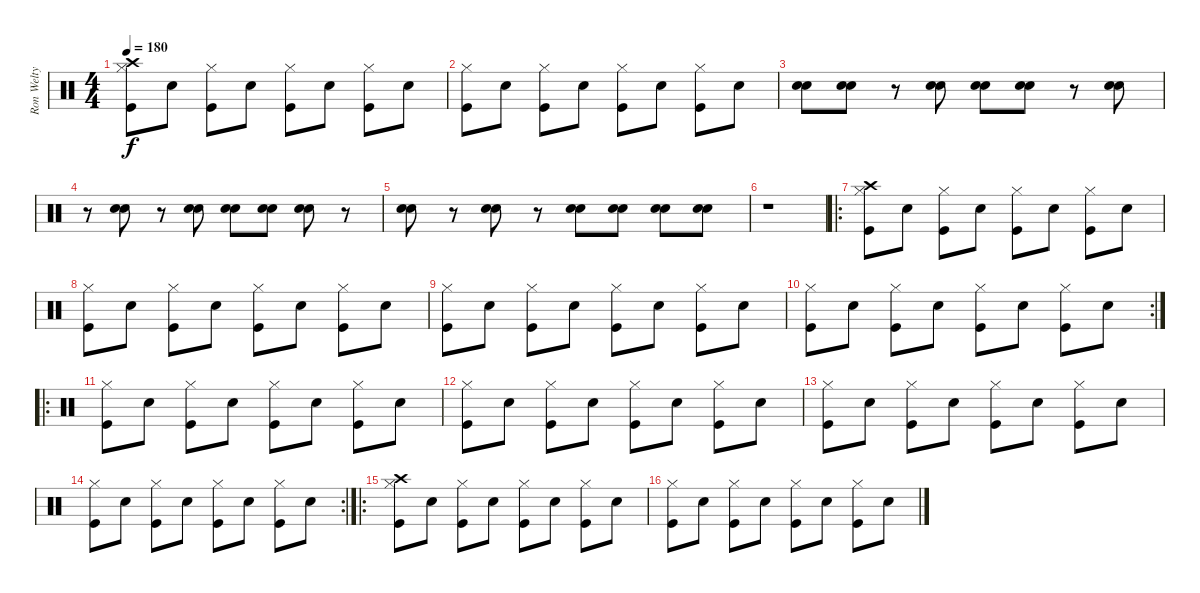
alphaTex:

\track ("Ron Welty (Drums)" "Ron Welty ") {instrument percussion}
\staff {score}
\articulation defaults
\ts (4 4)
\tempo 180
\clef neutral
\ks c
("Crash high (hit)" "Hi-Hat (closed)" "Kick (hit)").8{dy f} "Electric Snare (hit)".8 ("Hi-Hat (closed)" "Kick (hit)").8 "Electric Snare (hit)".8 ("Hi-Hat (closed)" "Kick (hit)").8 "Electric Snare (hit)".8 ("Hi-Hat (closed)" "Kick (hit)").8 "Electric Snare (hit)".8 |
("Hi-Hat (closed)" "Kick (hit)").8 "Electric Snare (hit)".8 ("Hi-Hat (closed)" "Kick (hit)").8 "Electric Snare (hit)".8 ("Hi-Hat (closed)" "Kick (hit)").8 "Electric Snare (hit)".8 ("Hi-Hat (closed)" "Kick (hit)").8 "Electric Snare (hit)".8 |
("Electric Snare (hit)" "Snare (hit) 2").8 ("Electric Snare (hit)" "Snare (hit) 2").8 r.8 ("Electric Snare (hit)" "Snare (hit) 2").8 ("Electric Snare (hit)" "Snare (hit) 2").8 ("Electric Snare (hit)" "Snare (hit) 2").8 r.8 ("Electric Snare (hit)" "Snare (hit) 2").8 |
r.8 ("Electric Snare (hit)" "Snare (hit) 2").8 r.8 ("Electric Snare (hit)" "Snare (hit) 2").8 ("Electric Snare (hit)" "Snare (hit) 2").8 ("Electric Snare (hit)" "Snare (hit) 2").8 ("Electric Snare (hit)" "Snare (hit) 2").8 r.8 |
("Electric Snare (hit)" "Snare (hit) 2").8 r.8 ("Electric Snare (hit)" "Snare (hit) 2").8 r.8 ("Electric Snare (hit)" "Snare (hit) 2").8 ("Electric Snare (hit)" "Snare (hit) 2").8 ("Electric Snare (hit)" "Snare (hit) 2").8 ("Electric Snare (hit)" "Snare (hit) 2").8 |
r.1 |
\ro
("Crash high (hit)" "Hi-Hat (closed)" "Kick (hit)").8 "Electric Snare (hit)".8 ("Hi-Hat (closed)" "Kick (hit)").8 "Electric Snare (hit)".8 ("Hi-Hat (closed)" "Kick (hit)").8 "Electric Snare (hit)".8 ("Hi-Hat (closed)" "Kick (hit)").8 "Electric Snare (hit)".8 |
("Hi-Hat (closed)" "Kick (hit)").8 "Electric Snare (hit)".8 ("Hi-Hat (closed)" "Kick (hit)").8 "Electric Snare (hit)".8 ("Hi-Hat (closed)" "Kick (hit)").8 "Electric Snare (hit)".8 ("Hi-Hat (closed)" "Kick (hit)").8 "Electric Snare (hit)".8 |
("Hi-Hat (closed)" "Kick (hit)").8 "Electric Snare (hit)".8 ("Hi-Hat (closed)" "Kick (hit)").8 "Electric Snare (hit)".8 ("Hi-Hat (closed)" "Kick (hit)").8 "Electric Snare (hit)".8 ("Hi-Hat (closed)" "Kick (hit)").8 "Electric Snare (hit)".8 |
\rc 2
("Hi-Hat (closed)" "Kick (hit)").8 "Electric Snare (hit)".8 ("Hi-Hat (closed)" "Kick (hit)").8 "Electric Snare (hit)".8 ("Hi-Hat (closed)" "Kick (hit)").8 "Electric Snare (hit)".8 ("Hi-Hat (closed)" "Kick (hit)").8 "Electric Snare (hit)".8 |
\ro
("Hi-Hat (closed)" "Kick (hit)").8 "Electric Snare (hit)".8 ("Hi-Hat (closed)" "Kick (hit)").8 "Electric Snare (hit)".8 ("Hi-Hat (closed)" "Kick (hit)").8 "Electric Snare (hit)".8 ("Hi-Hat (closed)" "Kick (hit)").8 "Electric Snare (hit)".8 |
("Hi-Hat (closed)" "Kick (hit)").8 "Electric Snare (hit)".8 ("Hi-Hat (closed)" "Kick (hit)").8 "Electric Snare (hit)".8 ("Hi-Hat (closed)" "Kick (hit)").8 "Electric Snare (hit)".8 ("Hi-Hat (closed)" "Kick (hit)").8 "Electric Snare (hit)".8 |
("Hi-Hat (closed)" "Kick (hit)").8 "Electric Snare (hit)".8 ("Hi-Hat (closed)" "Kick (hit)").8 "Electric Snare (hit)".8 ("Hi-Hat (closed)" "Kick (hit)").8 "Electric Snare (hit)".8 ("Hi-Hat (closed)" "Kick (hit)").8 "Electric Snare (hit)".8 |
\rc 2
("Hi-Hat (closed)" "Kick (hit)").8 "Electric Snare (hit)".8 ("Hi-Hat (closed)" "Kick (hit)").8 "Electric Snare (hit)".8 ("Hi-Hat (closed)" "Kick (hit)").8 "Electric Snare (hit)".8 ("Hi-Hat (closed)" "Kick (hit)").8 "Electric Snare (hit)".8 |
\ro
("Crash high (hit)" "Hi-Hat (closed)" "Kick (hit)").8 "Electric Snare (hit)".8 ("Hi-Hat (closed)" "Kick (hit)").8 "Electric Snare (hit)".8 ("Hi-Hat (closed)" "Kick (hit)").8 "Electric Snare (hit)".8 ("Hi-Hat (closed)" "Kick (hit)").8 "Electric Snare (hit)".8 |
("Hi-Hat (closed)" "Kick (hit)").8 "Electric Snare (hit)".8 ("Hi-Hat (closed)" "Kick (hit)").8 "Electric Snare (hit)".8 ("Hi-Hat (closed)" "Kick (hit)").8 "Electric Snare (hit)".8 ("Hi-Hat (closed)" "Kick (hit)").8 "Electric Snare (hit)".8
